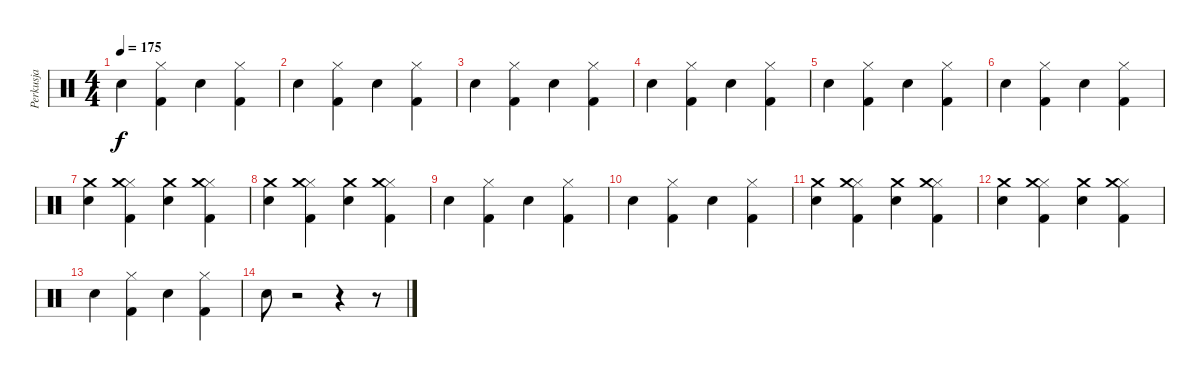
\track ("Perkusja" "Perkusja") {instrument percussion}
\staff {score}
\articulation defaults
\ts (4 4)
\tempo 175
\clef neutral
\ks c "Snare (hit) 2".4{dy f}
("Kick (hit) 2" "Hi-Hat (closed)").4 "Snare (hit) 2".4 ("Kick (hit) 2" "Hi-Hat (closed)").4 |
"Snare (hit) 2".4 ("Kick (hit) 2" "Hi-Hat (closed)").4 "Snare (hit) 2".4 ("Kick (hit) 2" "Hi-Hat (closed)").4 |
"Snare (hit) 2".4 ("Kick (hit) 2" "Hi-Hat (closed)").4 "Snare (hit) 2".4 ("Kick (hit) 2" "Hi-Hat (closed)").4 |
"Snare (hit) 2".4 ("Kick (hit) 2" "Hi-Hat (closed)").4 "Snare (hit) 2".4 ("Kick (hit) 2" "Hi-Hat (closed)").4 |
"Snare (hit) 2".4 ("Kick (hit) 2" "Hi-Hat (closed)").4 "Snare (hit) 2".4 ("Kick (hit) 2" "Hi-Hat (closed)").4 |
"Snare (hit) 2".4 ("Kick (hit) 2" "Hi-Hat (closed)").4 "Snare (hit) 2".4 ("Kick (hit) 2" "Hi-Hat (closed)").4 |
("Snare (hit) 2" "Crash medium (hit)").4 ("Kick (hit) 2" "Hi-Hat (closed)" "Crash medium (hit)").4 ("Snare (hit) 2" "Crash medium (hit)").4 ("Kick (hit) 2" "Hi-Hat (closed)" "Crash medium (hit)").4 |
("Snare (hit) 2" "Crash medium (hit)").4 ("Kick (hit) 2" "Hi-Hat (closed)" "Crash medium (hit)").4 ("Snare (hit) 2" "Crash medium (hit)").4 ("Kick (hit) 2" "Hi-Hat (closed)" "Crash medium (hit)").4 |
"Snare (hit) 2".4 ("Kick (hit) 2" "Hi-Hat (closed)").4 "Snare (hit) 2".4 ("Kick (hit) 2" "Hi-Hat (closed)").4 |
"Snare (hit) 2".4 ("Kick (hit) 2" "Hi-Hat (closed)").4 "Snare (hit) 2".4 ("Kick (hit) 2" "Hi-Hat (closed)").4 |
("Snare (hit) 2" "Crash medium (hit)").4 ("Kick (hit) 2" "Hi-Hat (closed)" "Crash medium (hit)").4 ("Snare (hit) 2" "Crash medium (hit)").4 ("Kick (hit) 2" "Hi-Hat (closed)" "Crash medium (hit)").4 |
("Snare (hit) 2" "Crash medium (hit)").4 ("Kick (hit) 2" "Hi-Hat (closed)" "Crash medium (hit)").4 ("Snare (hit) 2" "Crash medium (hit)").4 ("Kick (hit) 2" "Hi-Hat (closed)" "Crash medium (hit)").4 |
"Snare (hit) 2".4 ("Kick (hit) 2" "Hi-Hat (closed)").4 "Snare (hit) 2".4 ("Kick (hit) 2" "Hi-Hat (closed)").4 |
"Snare (hit) 2".8 r.2 r.4 r.8
